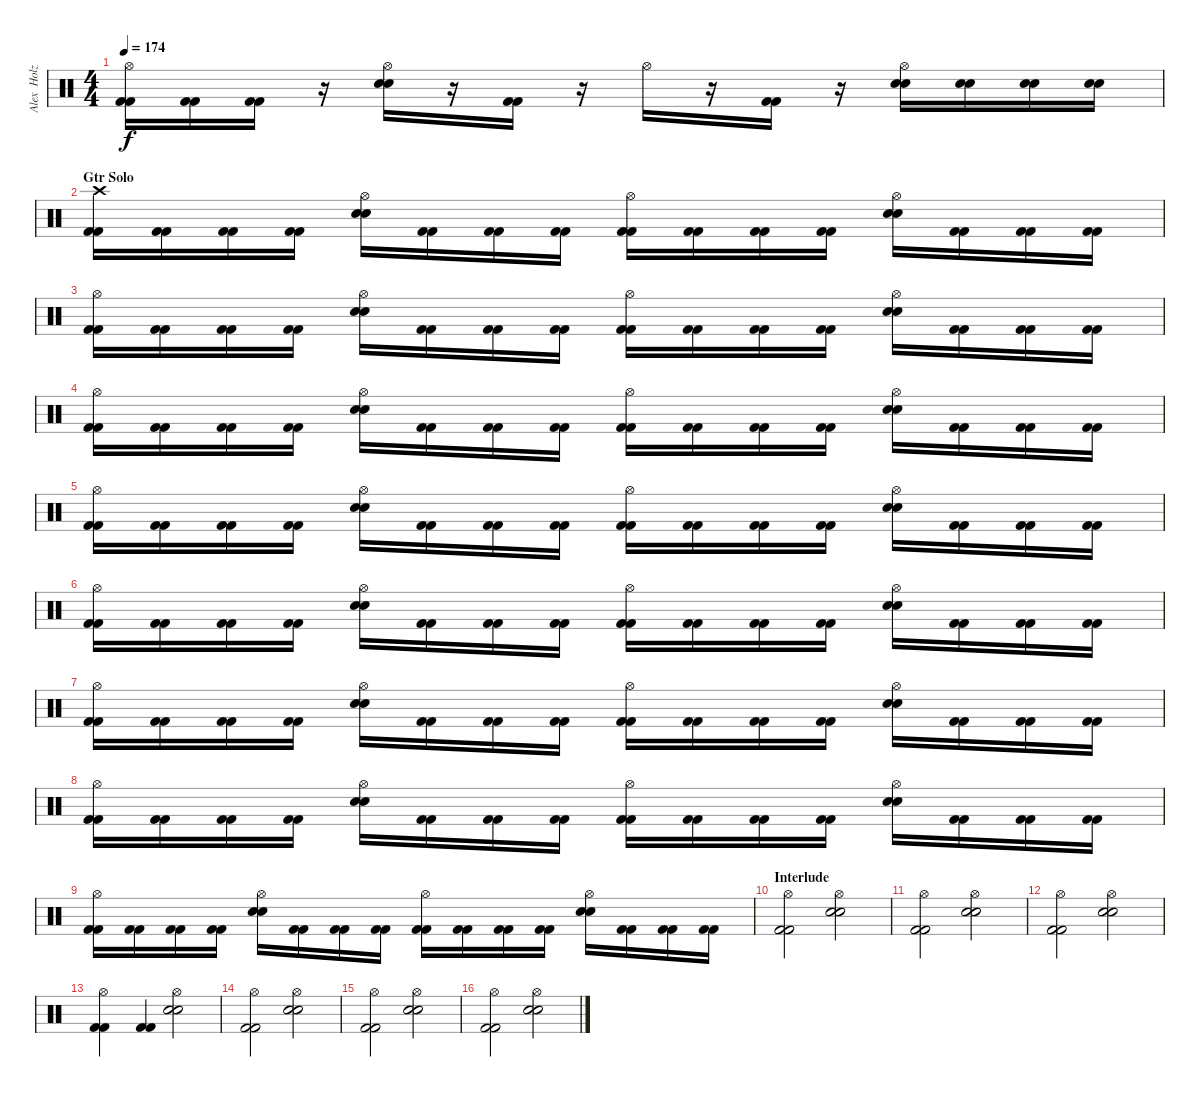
\track ("Alex  Holzwarth (Drums)" "Alex  Holz") {instrument percussion}
\staff {score}
\articulation defaults
\ts (4 4)
\tempo 174
\clef neutral
\ks c
("Hi-Hat (open)" "Kick (hit) 2" "Kick (hit) 2").16{dy f} ("Kick (hit) 2" "Kick (hit) 2").16 ("Kick (hit) 2" "Kick (hit) 2").16 r.16 ("Hi-Hat (open)" "Snare (hit) 2" "Snare (hit) 2").16 r.16 ("Kick (hit) 2" "Kick (hit) 2").16 r.16 "Hi-Hat (open)".16 r.16 ("Kick (hit) 2" "Kick (hit) 2").16 r.16 ("Hi-Hat (open)" "Snare (hit) 2" "Snare (hit) 2").16 ("Snare (hit) 2" "Snare (hit) 2").16 ("Snare (hit) 2" "Snare (hit) 2").16 ("Snare (hit) 2" "Snare (hit) 2").16 |
\section ("" "Gtr Solo")
("Crash high (hit)" "Kick (hit) 2" "Kick (hit) 2").16 ("Kick (hit) 2" "Kick (hit) 2").16 ("Kick (hit) 2" "Kick (hit) 2").16 ("Kick (hit) 2" "Kick (hit) 2").16 ("Hi-Hat (open)" "Snare (hit) 2" "Snare (hit) 2").16 ("Kick (hit) 2" "Kick (hit) 2").16 ("Kick (hit) 2" "Kick (hit) 2").16 ("Kick (hit) 2" "Kick (hit) 2").16 ("Hi-Hat (open)" "Kick (hit) 2" "Kick (hit) 2").16 ("Kick (hit) 2" "Kick (hit) 2").16 ("Kick (hit) 2" "Kick (hit) 2").16 ("Kick (hit) 2" "Kick (hit) 2").16 ("Hi-Hat (open)" "Snare (hit) 2" "Snare (hit) 2").16 ("Kick (hit) 2" "Kick (hit) 2").16 ("Kick (hit) 2" "Kick (hit) 2").16 ("Kick (hit) 2" "Kick (hit) 2").16 |
("Hi-Hat (open)" "Kick (hit) 2" "Kick (hit) 2").16 ("Kick (hit) 2" "Kick (hit) 2").16 ("Kick (hit) 2" "Kick (hit) 2").16 ("Kick (hit) 2" "Kick (hit) 2").16 ("Hi-Hat (open)" "Snare (hit) 2" "Snare (hit) 2").16 ("Kick (hit) 2" "Kick (hit) 2").16 ("Kick (hit) 2" "Kick (hit) 2").16 ("Kick (hit) 2" "Kick (hit) 2").16 ("Hi-Hat (open)" "Kick (hit) 2" "Kick (hit) 2").16 ("Kick (hit) 2" "Kick (hit) 2").16 ("Kick (hit) 2" "Kick (hit) 2").16 ("Kick (hit) 2" "Kick (hit) 2").16 ("Hi-Hat (open)" "Snare (hit) 2" "Snare (hit) 2").16 ("Kick (hit) 2" "Kick (hit) 2").16 ("Kick (hit) 2" "Kick (hit) 2").16 ("Kick (hit) 2" "Kick (hit) 2").16 |
("Hi-Hat (open)" "Kick (hit) 2" "Kick (hit) 2").16 ("Kick (hit) 2" "Kick (hit) 2").16 ("Kick (hit) 2" "Kick (hit) 2").16 ("Kick (hit) 2" "Kick (hit) 2").16 ("Hi-Hat (open)" "Snare (hit) 2" "Snare (hit) 2").16 ("Kick (hit) 2" "Kick (hit) 2").16 ("Kick (hit) 2" "Kick (hit) 2").16 ("Kick (hit) 2" "Kick (hit) 2").16 ("Hi-Hat (open)" "Kick (hit) 2" "Kick (hit) 2").16 ("Kick (hit) 2" "Kick (hit) 2").16 ("Kick (hit) 2" "Kick (hit) 2").16 ("Kick (hit) 2" "Kick (hit) 2").16 ("Hi-Hat (open)" "Snare (hit) 2" "Snare (hit) 2").16 ("Kick (hit) 2" "Kick (hit) 2").16 ("Kick (hit) 2" "Kick (hit) 2").16 ("Kick (hit) 2" "Kick (hit) 2").16 |
("Hi-Hat (open)" "Kick (hit) 2" "Kick (hit) 2").16 ("Kick (hit) 2" "Kick (hit) 2").16 ("Kick (hit) 2" "Kick (hit) 2").16 ("Kick (hit) 2" "Kick (hit) 2").16 ("Hi-Hat (open)" "Snare (hit) 2" "Snare (hit) 2").16 ("Kick (hit) 2" "Kick (hit) 2").16 ("Kick (hit) 2" "Kick (hit) 2").16 ("Kick (hit) 2" "Kick (hit) 2").16 ("Hi-Hat (open)" "Kick (hit) 2" "Kick (hit) 2").16 ("Kick (hit) 2" "Kick (hit) 2").16 ("Kick (hit) 2" "Kick (hit) 2").16 ("Kick (hit) 2" "Kick (hit) 2").16 ("Hi-Hat (open)" "Snare (hit) 2" "Snare (hit) 2").16 ("Kick (hit) 2" "Kick (hit) 2").16 ("Kick (hit) 2" "Kick (hit) 2").16 ("Kick (hit) 2" "Kick (hit) 2").16 |
("Hi-Hat (open)" "Kick (hit) 2" "Kick (hit) 2").16 ("Kick (hit) 2" "Kick (hit) 2").16 ("Kick (hit) 2" "Kick (hit) 2").16 ("Kick (hit) 2" "Kick (hit) 2").16 ("Hi-Hat (open)" "Snare (hit) 2" "Snare (hit) 2").16 ("Kick (hit) 2" "Kick (hit) 2").16 ("Kick (hit) 2" "Kick (hit) 2").16 ("Kick (hit) 2" "Kick (hit) 2").16 ("Hi-Hat (open)" "Kick (hit) 2" "Kick (hit) 2").16 ("Kick (hit) 2" "Kick (hit) 2").16 ("Kick (hit) 2" "Kick (hit) 2").16 ("Kick (hit) 2" "Kick (hit) 2").16 ("Hi-Hat (open)" "Snare (hit) 2" "Snare (hit) 2").16 ("Kick (hit) 2" "Kick (hit) 2").16 ("Kick (hit) 2" "Kick (hit) 2").16 ("Kick (hit) 2" "Kick (hit) 2").16 |
("Hi-Hat (open)" "Kick (hit) 2" "Kick (hit) 2").16 ("Kick (hit) 2" "Kick (hit) 2").16 ("Kick (hit) 2" "Kick (hit) 2").16 ("Kick (hit) 2" "Kick (hit) 2").16 ("Hi-Hat (open)" "Snare (hit) 2" "Snare (hit) 2").16 ("Kick (hit) 2" "Kick (hit) 2").16 ("Kick (hit) 2" "Kick (hit) 2").16 ("Kick (hit) 2" "Kick (hit) 2").16 ("Hi-Hat (open)" "Kick (hit) 2" "Kick (hit) 2").16 ("Kick (hit) 2" "Kick (hit) 2").16 ("Kick (hit) 2" "Kick (hit) 2").16 ("Kick (hit) 2" "Kick (hit) 2").16 ("Hi-Hat (open)" "Snare (hit) 2" "Snare (hit) 2").16 ("Kick (hit) 2" "Kick (hit) 2").16 ("Kick (hit) 2" "Kick (hit) 2").16 ("Kick (hit) 2" "Kick (hit) 2").16 |
("Hi-Hat (open)" "Kick (hit) 2" "Kick (hit) 2").16 ("Kick (hit) 2" "Kick (hit) 2").16 ("Kick (hit) 2" "Kick (hit) 2").16 ("Kick (hit) 2" "Kick (hit) 2").16 ("Hi-Hat (open)" "Snare (hit) 2" "Snare (hit) 2").16 ("Kick (hit) 2" "Kick (hit) 2").16 ("Kick (hit) 2" "Kick (hit) 2").16 ("Kick (hit) 2" "Kick (hit) 2").16 ("Hi-Hat (open)" "Kick (hit) 2" "Kick (hit) 2").16 ("Kick (hit) 2" "Kick (hit) 2").16 ("Kick (hit) 2" "Kick (hit) 2").16 ("Kick (hit) 2" "Kick (hit) 2").16 ("Hi-Hat (open)" "Snare (hit) 2" "Snare (hit) 2").16 ("Kick (hit) 2" "Kick (hit) 2").16 ("Kick (hit) 2" "Kick (hit) 2").16 ("Kick (hit) 2" "Kick (hit) 2").16 |
("Hi-Hat (open)" "Kick (hit) 2" "Kick (hit) 2").16 ("Kick (hit) 2" "Kick (hit) 2").16 ("Kick (hit) 2" "Kick (hit) 2").16 ("Kick (hit) 2" "Kick (hit) 2").16 ("Hi-Hat (open)" "Snare (hit) 2" "Snare (hit) 2").16 ("Kick (hit) 2" "Kick (hit) 2").16 ("Kick (hit) 2" "Kick (hit) 2").16 ("Kick (hit) 2" "Kick (hit) 2").16 ("Hi-Hat (open)" "Kick (hit) 2" "Kick (hit) 2").16 ("Kick (hit) 2" "Kick (hit) 2").16 ("Kick (hit) 2" "Kick (hit) 2").16 ("Kick (hit) 2" "Kick (hit) 2").16 ("Hi-Hat (open)" "Snare (hit) 2" "Snare (hit) 2").16 ("Kick (hit) 2" "Kick (hit) 2").16 ("Kick (hit) 2" "Kick (hit) 2").16 ("Kick (hit) 2" "Kick (hit) 2").16 |
\section ("" "Interlude")
("Hi-Hat (open)" "Kick (hit) 2" "Kick (hit) 2").2 ("Hi-Hat (open)" "Snare (hit) 2" "Snare (hit) 2").2 |
("Hi-Hat (open)" "Kick (hit) 2" "Kick (hit) 2").2 ("Hi-Hat (open)" "Snare (hit) 2" "Snare (hit) 2").2 |
("Hi-Hat (open)" "Kick (hit) 2" "Kick (hit) 2").2 ("Hi-Hat (open)" "Snare (hit) 2" "Snare (hit) 2").2 |
("Hi-Hat (open)" "Kick (hit) 2" "Kick (hit) 2").4 ("Kick (hit) 2" "Kick (hit) 2").4 ("Hi-Hat (open)" "Snare (hit) 2" "Snare (hit) 2").2 |
("Hi-Hat (open)" "Kick (hit) 2" "Kick (hit) 2").2 ("Hi-Hat (open)" "Snare (hit) 2" "Snare (hit) 2").2 |
("Hi-Hat (open)" "Kick (hit) 2" "Kick (hit) 2").2 ("Hi-Hat (open)" "Snare (hit) 2" "Snare (hit) 2").2 |
("Hi-Hat (open)" "Kick (hit) 2" "Kick (hit) 2").2 ("Hi-Hat (open)" "Snare (hit) 2" "Snare (hit) 2").2
